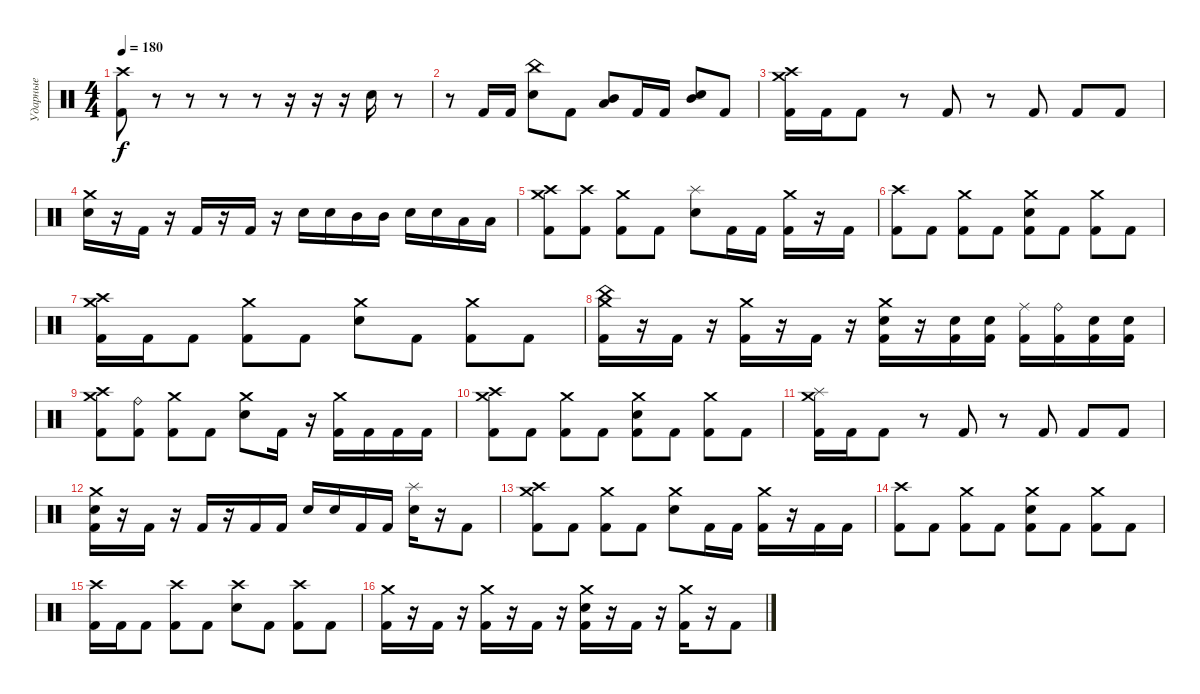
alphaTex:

\track ("Ударные" "Ударные") {instrument percussion}
\staff {score}
\articulation defaults
\ts (4 4)
\tempo 180
\clef neutral
\ks c
("Crash high (hit)" "Kick (hit) 2").8{dy f} r.8 r.8 r.8 r.8 r.16 r.16 r.16 "Snare (hit)".16 r.8 |
r.8 "Kick (hit) 2".16 "Kick (hit) 2".16 ("Electric Snare (hit)" "China (hit)").8 "Kick (hit) 2".8 ("Low Tom (hit)" "Mid Tom (hit)").8 "Kick (hit) 2".16 "Kick (hit) 2".16 ("Mid Tom (hit)" "Electric Snare (hit)").8 "Kick (hit) 2".8 |
("Crash high (hit)" "Crash medium (hit)" "Kick (hit) 2").16 "Kick (hit) 2".16 "Kick (hit) 2".8 r.8 "Kick (hit) 2".8 r.8 "Kick (hit) 2".8 "Kick (hit) 2".8 "Kick (hit) 2".8 |
("Crash medium (hit)" "Electric Snare (hit)").16 r.16 "Kick (hit) 2".16 r.16 "Kick (hit) 2".16 r.16 "Kick (hit) 2".16 r.16 "Electric Snare (hit)".16 "Electric Snare (hit)".16 "Mid Tom (hit)".16 "Mid Tom (hit)".16 "Electric Snare (hit)".16 "Electric Snare (hit)".16 "Low Tom (hit)".16 "Low Tom (hit)".16 |
("Crash high (hit)" "Crash medium (hit)" "Kick (hit) 2").8 ("Crash high (hit)" "Kick (hit) 2").8 ("Crash medium (hit)" "Kick (hit) 2").8 "Kick (hit) 2".8 ("Splash (hit)" "Electric Snare (hit)").8 "Kick (hit) 2".16 "Kick (hit) 2".16 ("Crash medium (hit)" "Kick (hit) 2").16 r.16 "Kick (hit) 2".16 |
("Crash high (hit)" "Kick (hit) 2").8 "Kick (hit) 2".8 ("Crash medium (hit)" "Kick (hit) 2").8 "Kick (hit) 2".8 ("Crash medium (hit)" "Electric Snare (hit)" "Kick (hit) 2").8 "Kick (hit) 2".8 ("Crash medium (hit)" "Kick (hit) 2").8 "Kick (hit) 2".8 |
("Crash medium (hit)" "Crash high (hit)" "Kick (hit) 2").16 "Kick (hit) 2".16 "Kick (hit) 2".8 ("Crash medium (hit)" "Kick (hit) 2").8 "Kick (hit) 2".8 ("Crash medium (hit)" "Electric Snare (hit)").8 "Kick (hit) 2".8 ("Crash medium (hit)" "Kick (hit) 2").8 "Kick (hit) 2".8 |
("China (hit)" "Crash medium (hit)" "Kick (hit) 2").16 r.16 "Kick (hit) 2".16 r.16 ("Crash medium (hit)" "Kick (hit) 2").16 r.16 "Kick (hit) 2".16 r.16 ("Crash medium (hit)" "Electric Snare (hit)" "Kick (hit) 2").16 r.16 ("Electric Snare (hit)" "Kick (hit) 2").16 ("Electric Snare (hit)" "Kick (hit) 2").16 ("Ride (middle)" "Kick (hit) 2").16 ("Ride (bell)" "Kick (hit) 2").16 ("Electric Snare (hit)" "Kick (hit) 2").16 ("Electric Snare (hit)" "Kick (hit) 2").16 |
("Crash high (hit)" "Crash medium (hit)" "Kick (hit) 2").8 ("Ride (bell)" "Kick (hit) 2").8 ("Crash medium (hit)" "Kick (hit) 2").8 "Kick (hit) 2".8 ("Crash medium (hit)" "Electric Snare (hit)").8 "Kick (hit) 2".16 r.16 ("Crash medium (hit)" "Kick (hit) 2").16 "Kick (hit) 2".16 "Kick (hit) 2".16 "Kick (hit) 2".16 |
("Crash medium (hit)" "Crash high (hit)" "Kick (hit) 2").8 "Kick (hit) 2".8 ("Crash medium (hit)" "Kick (hit) 2").8 "Kick (hit) 2".8 ("Crash medium (hit)" "Electric Snare (hit)" "Kick (hit) 2").8 "Kick (hit) 2".8 ("Crash medium (hit)" "Kick (hit) 2").8 "Kick (hit) 2".8 |
("Crash medium (hit)" "Splash (hit)" "Kick (hit) 2").16 "Kick (hit) 2".16 "Kick (hit) 2".8 r.8 "Kick (hit) 2".8 r.8 "Kick (hit) 2".8 "Kick (hit) 2".8 "Kick (hit) 2".8 |
("Crash medium (hit)" "Electric Snare (hit)" "Kick (hit) 2").16 r.16 "Kick (hit) 2".16 r.16 "Kick (hit) 2".16 r.16 "Kick (hit) 2".16 "Kick (hit) 2".16 "Electric Snare (hit)".16 "Electric Snare (hit)".16 "Kick (hit) 2".16 "Kick (hit) 2".16 ("Splash (hit)" "Electric Snare (hit)").16 r.16 "Kick (hit) 2".8 |
("Crash high (hit)" "Crash medium (hit)" "Kick (hit) 2").8 "Kick (hit) 2".8 ("Crash medium (hit)" "Kick (hit) 2").8 "Kick (hit) 2".8 ("Crash medium (hit)" "Electric Snare (hit)").8 "Kick (hit) 2".16 "Kick (hit) 2".16 ("Crash medium (hit)" "Kick (hit) 2").16 r.16 "Kick (hit) 2".16 "Kick (hit) 2".16 |
("Crash high (hit)" "Kick (hit) 2").8 "Kick (hit) 2".8 ("Crash medium (hit)" "Kick (hit) 2").8 "Kick (hit) 2".8 ("Crash medium (hit)" "Electric Snare (hit)" "Kick (hit) 2").8 "Kick (hit) 2".8 ("Crash medium (hit)" "Kick (hit) 2").8 "Kick (hit) 2".8 |
("Crash high (hit)" "Kick (hit) 2").16 "Kick (hit) 2".16 "Kick (hit) 2".8 ("Crash high (hit)" "Kick (hit) 2").8 "Kick (hit) 2".8 ("Crash high (hit)" "Electric Snare (hit)").8 "Kick (hit) 2".8 ("Crash high (hit)" "Kick (hit) 2").8 "Kick (hit) 2".8 |
("Crash medium (hit)" "Kick (hit) 2").16 r.16 "Kick (hit) 2".16 r.16 ("Crash medium (hit)" "Kick (hit) 2").16 r.16 "Kick (hit) 2".16 r.16 ("Crash medium (hit)" "Electric Snare (hit)" "Kick (hit) 2").16 r.16 "Kick (hit) 2".16 r.16 ("Crash medium (hit)" "Kick (hit) 2").16 r.16 "Kick (hit) 2".8
